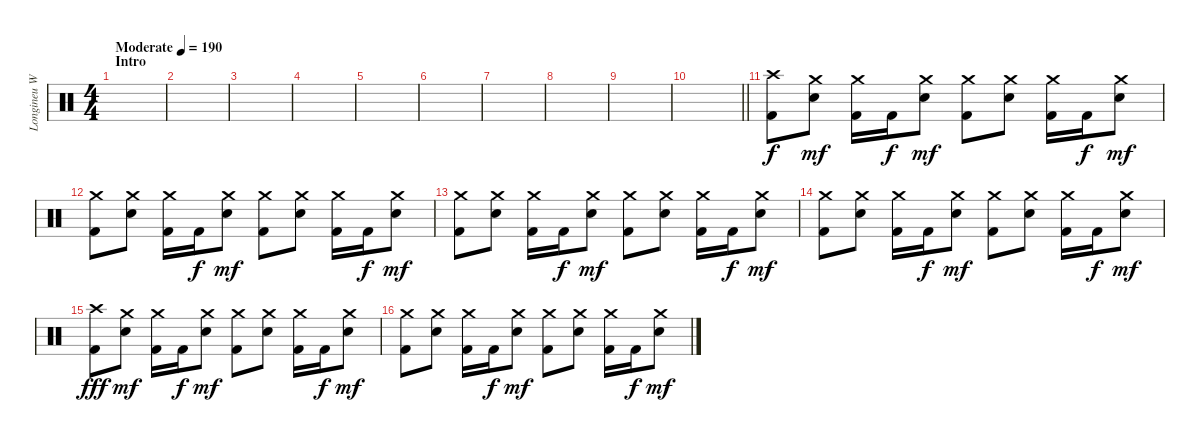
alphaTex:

\track ("Longineu W. Parsons III" "Longineu W") {instrument percussion}
\staff {score}
\articulation defaults
\ts (4 4)
\section ("" "Intro")
\tempo (190 "Moderate")
\clef neutral
\ks c
|
|
|
|
|
|
|
|
|
\barLineRight lightlight
|
("Crash high (hit)" "Kick (hit) 2").8 ("Crash medium (hit)" "Electric Snare (hit)").8{dy mf} ("Crash medium (hit)" "Kick (hit) 2").16 "Kick (hit) 2".16{dy f} ("Crash medium (hit)" "Electric Snare (hit)").8{dy mf} ("Crash medium (hit)" "Kick (hit) 2").8 ("Crash medium (hit)" "Electric Snare (hit)").8 ("Crash medium (hit)" "Kick (hit) 2").16 "Kick (hit) 2".16{dy f} ("Crash medium (hit)" "Electric Snare (hit)").8{dy mf} |
("Crash medium (hit)" "Kick (hit) 2").8 ("Crash medium (hit)" "Electric Snare (hit)").8 ("Crash medium (hit)" "Kick (hit) 2").16 "Kick (hit) 2".16{dy f} ("Crash medium (hit)" "Electric Snare (hit)").8{dy mf} ("Crash medium (hit)" "Kick (hit) 2").8 ("Crash medium (hit)" "Electric Snare (hit)").8 ("Crash medium (hit)" "Kick (hit) 2").16 "Kick (hit) 2".16{dy f} ("Crash medium (hit)" "Electric Snare (hit)").8{dy mf} |
("Crash medium (hit)" "Kick (hit) 2").8 ("Crash medium (hit)" "Electric Snare (hit)").8 ("Crash medium (hit)" "Kick (hit) 2").16 "Kick (hit) 2".16{dy f} ("Crash medium (hit)" "Electric Snare (hit)").8{dy mf} ("Crash medium (hit)" "Kick (hit) 2").8 ("Crash medium (hit)" "Electric Snare (hit)").8 ("Crash medium (hit)" "Kick (hit) 2").16 "Kick (hit) 2".16{dy f} ("Crash medium (hit)" "Electric Snare (hit)").8{dy mf} |
("Crash medium (hit)" "Kick (hit) 2").8 ("Crash medium (hit)" "Electric Snare (hit)").8 ("Crash medium (hit)" "Kick (hit) 2").16 "Kick (hit) 2".16{dy f} ("Crash medium (hit)" "Electric Snare (hit)").8{dy mf} ("Crash medium (hit)" "Kick (hit) 2").8 ("Crash medium (hit)" "Electric Snare (hit)").8 ("Crash medium (hit)" "Kick (hit) 2").16 "Kick (hit) 2".16{dy f} ("Crash medium (hit)" "Electric Snare (hit)").8{dy mf} |
("Crash high (hit)" "Kick (hit) 2").8{dy fff} ("Crash medium (hit)" "Electric Snare (hit)").8{dy mf} ("Crash medium (hit)" "Kick (hit) 2").16 "Kick (hit) 2".16{dy f} ("Crash medium (hit)" "Electric Snare (hit)").8{dy mf} ("Crash medium (hit)" "Kick (hit) 2").8 ("Crash medium (hit)" "Electric Snare (hit)").8 ("Crash medium (hit)" "Kick (hit) 2").16 "Kick (hit) 2".16{dy f} ("Crash medium (hit)" "Electric Snare (hit)").8{dy mf} |
("Crash medium (hit)" "Kick (hit) 2").8 ("Crash medium (hit)" "Electric Snare (hit)").8 ("Crash medium (hit)" "Kick (hit) 2").16 "Kick (hit) 2".16{dy f} ("Crash medium (hit)" "Electric Snare (hit)").8{dy mf} ("Crash medium (hit)" "Kick (hit) 2").8 ("Crash medium (hit)" "Electric Snare (hit)").8 ("Crash medium (hit)" "Kick (hit) 2").16 "Kick (hit) 2".16{dy f} ("Crash medium (hit)" "Electric Snare (hit)").8{dy mf}
